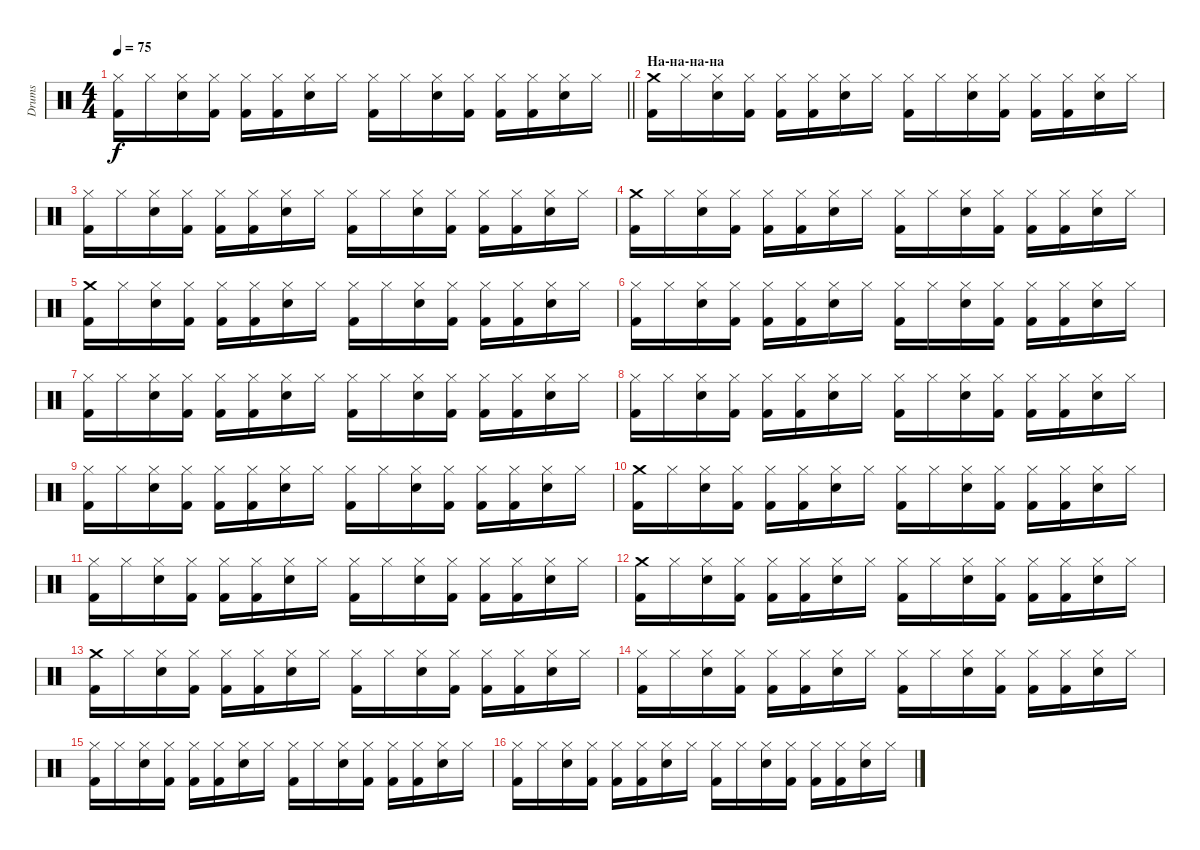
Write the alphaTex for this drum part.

\track ("Drums" "Drums") {instrument percussion}
\staff {score}
\articulation defaults
\ts (4 4)
\tempo 75
\clef neutral
\barLineRight lightlight
\ks c
("Hi-Hat (closed)" "Kick (hit) 2").16{dy f} "Hi-Hat (closed)".16 ("Hi-Hat (closed)" "Snare (hit) 2").16 ("Hi-Hat (closed)" "Kick (hit) 2").16 ("Hi-Hat (closed)" "Kick (hit) 2").16 ("Hi-Hat (closed)" "Kick (hit) 2").16 ("Hi-Hat (closed)" "Snare (hit) 2").16 "Hi-Hat (closed)".16 ("Hi-Hat (closed)" "Kick (hit) 2").16 "Hi-Hat (closed)".16 ("Hi-Hat (closed)" "Snare (hit) 2").16 ("Hi-Hat (closed)" "Kick (hit) 2").16 ("Hi-Hat (closed)" "Kick (hit) 2").16 ("Hi-Hat (closed)" "Kick (hit) 2").16 ("Hi-Hat (closed)" "Snare (hit) 2").16 "Hi-Hat (closed)".16 |
\section ("" "На-на-на-на")
("Crash medium (hit)" "Kick (hit) 2").16 "Hi-Hat (closed)".16 ("Hi-Hat (closed)" "Snare (hit) 2").16 ("Hi-Hat (closed)" "Kick (hit) 2").16 ("Hi-Hat (closed)" "Kick (hit) 2").16 ("Hi-Hat (closed)" "Kick (hit) 2").16 ("Hi-Hat (closed)" "Snare (hit) 2").16 "Hi-Hat (closed)".16 ("Hi-Hat (closed)" "Kick (hit) 2").16 "Hi-Hat (closed)".16 ("Hi-Hat (closed)" "Snare (hit) 2").16 ("Hi-Hat (closed)" "Kick (hit) 2").16 ("Hi-Hat (closed)" "Kick (hit) 2").16 ("Hi-Hat (closed)" "Kick (hit) 2").16 ("Hi-Hat (closed)" "Snare (hit) 2").16 "Hi-Hat (closed)".16 |
("Hi-Hat (closed)" "Kick (hit) 2").16 "Hi-Hat (closed)".16 ("Hi-Hat (closed)" "Snare (hit) 2").16 ("Hi-Hat (closed)" "Kick (hit) 2").16 ("Hi-Hat (closed)" "Kick (hit) 2").16 ("Hi-Hat (closed)" "Kick (hit) 2").16 ("Hi-Hat (closed)" "Snare (hit) 2").16 "Hi-Hat (closed)".16 ("Hi-Hat (closed)" "Kick (hit) 2").16 "Hi-Hat (closed)".16 ("Hi-Hat (closed)" "Snare (hit) 2").16 ("Hi-Hat (closed)" "Kick (hit) 2").16 ("Hi-Hat (closed)" "Kick (hit) 2").16 ("Hi-Hat (closed)" "Kick (hit) 2").16 ("Hi-Hat (closed)" "Snare (hit) 2").16 "Hi-Hat (closed)".16 |
("Crash medium (hit)" "Kick (hit) 2").16 "Hi-Hat (closed)".16 ("Hi-Hat (closed)" "Snare (hit) 2").16 ("Hi-Hat (closed)" "Kick (hit) 2").16 ("Hi-Hat (closed)" "Kick (hit) 2").16 ("Hi-Hat (closed)" "Kick (hit) 2").16 ("Hi-Hat (closed)" "Snare (hit) 2").16 "Hi-Hat (closed)".16 ("Hi-Hat (closed)" "Kick (hit) 2").16 "Hi-Hat (closed)".16 ("Hi-Hat (closed)" "Snare (hit) 2").16 ("Hi-Hat (closed)" "Kick (hit) 2").16 ("Hi-Hat (closed)" "Kick (hit) 2").16 ("Hi-Hat (closed)" "Kick (hit) 2").16 ("Hi-Hat (closed)" "Snare (hit) 2").16 "Hi-Hat (closed)".16 |
("Crash medium (hit)" "Kick (hit) 2").16 "Hi-Hat (closed)".16 ("Hi-Hat (closed)" "Snare (hit) 2").16 ("Hi-Hat (closed)" "Kick (hit) 2").16 ("Hi-Hat (closed)" "Kick (hit) 2").16 ("Hi-Hat (closed)" "Kick (hit) 2").16 ("Hi-Hat (closed)" "Snare (hit) 2").16 "Hi-Hat (closed)".16 ("Hi-Hat (closed)" "Kick (hit) 2").16 "Hi-Hat (closed)".16 ("Hi-Hat (closed)" "Snare (hit) 2").16 ("Hi-Hat (closed)" "Kick (hit) 2").16 ("Hi-Hat (closed)" "Kick (hit) 2").16 ("Hi-Hat (closed)" "Kick (hit) 2").16 ("Hi-Hat (closed)" "Snare (hit) 2").16 "Hi-Hat (closed)".16 |
("Hi-Hat (closed)" "Kick (hit) 2").16 "Hi-Hat (closed)".16 ("Hi-Hat (closed)" "Snare (hit) 2").16 ("Hi-Hat (closed)" "Kick (hit) 2").16 ("Hi-Hat (closed)" "Kick (hit) 2").16 ("Hi-Hat (closed)" "Kick (hit) 2").16 ("Hi-Hat (closed)" "Snare (hit) 2").16 "Hi-Hat (closed)".16 ("Hi-Hat (closed)" "Kick (hit) 2").16 "Hi-Hat (closed)".16 ("Hi-Hat (closed)" "Snare (hit) 2").16 ("Hi-Hat (closed)" "Kick (hit) 2").16 ("Hi-Hat (closed)" "Kick (hit) 2").16 ("Hi-Hat (closed)" "Kick (hit) 2").16 ("Hi-Hat (closed)" "Snare (hit) 2").16 "Hi-Hat (closed)".16 |
("Hi-Hat (closed)" "Kick (hit) 2").16 "Hi-Hat (closed)".16 ("Hi-Hat (closed)" "Snare (hit) 2").16 ("Hi-Hat (closed)" "Kick (hit) 2").16 ("Hi-Hat (closed)" "Kick (hit) 2").16 ("Hi-Hat (closed)" "Kick (hit) 2").16 ("Hi-Hat (closed)" "Snare (hit) 2").16 "Hi-Hat (closed)".16 ("Hi-Hat (closed)" "Kick (hit) 2").16 "Hi-Hat (closed)".16 ("Hi-Hat (closed)" "Snare (hit) 2").16 ("Hi-Hat (closed)" "Kick (hit) 2").16 ("Hi-Hat (closed)" "Kick (hit) 2").16 ("Hi-Hat (closed)" "Kick (hit) 2").16 ("Hi-Hat (closed)" "Snare (hit) 2").16 "Hi-Hat (closed)".16 |
("Hi-Hat (closed)" "Kick (hit) 2").16 "Hi-Hat (closed)".16 ("Hi-Hat (closed)" "Snare (hit) 2").16 ("Hi-Hat (closed)" "Kick (hit) 2").16 ("Hi-Hat (closed)" "Kick (hit) 2").16 ("Hi-Hat (closed)" "Kick (hit) 2").16 ("Hi-Hat (closed)" "Snare (hit) 2").16 "Hi-Hat (closed)".16 ("Hi-Hat (closed)" "Kick (hit) 2").16 "Hi-Hat (closed)".16 ("Hi-Hat (closed)" "Snare (hit) 2").16 ("Hi-Hat (closed)" "Kick (hit) 2").16 ("Hi-Hat (closed)" "Kick (hit) 2").16 ("Hi-Hat (closed)" "Kick (hit) 2").16 ("Hi-Hat (closed)" "Snare (hit) 2").16 "Hi-Hat (closed)".16 |
("Hi-Hat (closed)" "Kick (hit) 2").16 "Hi-Hat (closed)".16 ("Hi-Hat (closed)" "Snare (hit) 2").16 ("Hi-Hat (closed)" "Kick (hit) 2").16 ("Hi-Hat (closed)" "Kick (hit) 2").16 ("Hi-Hat (closed)" "Kick (hit) 2").16 ("Hi-Hat (closed)" "Snare (hit) 2").16 "Hi-Hat (closed)".16 ("Hi-Hat (closed)" "Kick (hit) 2").16 "Hi-Hat (closed)".16 ("Hi-Hat (closed)" "Snare (hit) 2").16 ("Hi-Hat (closed)" "Kick (hit) 2").16 ("Hi-Hat (closed)" "Kick (hit) 2").16 ("Hi-Hat (closed)" "Kick (hit) 2").16 ("Hi-Hat (closed)" "Snare (hit) 2").16 "Hi-Hat (closed)".16 |
("Crash medium (hit)" "Kick (hit) 2").16 "Hi-Hat (closed)".16 ("Hi-Hat (closed)" "Snare (hit) 2").16 ("Hi-Hat (closed)" "Kick (hit) 2").16 ("Hi-Hat (closed)" "Kick (hit) 2").16 ("Hi-Hat (closed)" "Kick (hit) 2").16 ("Hi-Hat (closed)" "Snare (hit) 2").16 "Hi-Hat (closed)".16 ("Hi-Hat (closed)" "Kick (hit) 2").16 "Hi-Hat (closed)".16 ("Hi-Hat (closed)" "Snare (hit) 2").16 ("Hi-Hat (closed)" "Kick (hit) 2").16 ("Hi-Hat (closed)" "Kick (hit) 2").16 ("Hi-Hat (closed)" "Kick (hit) 2").16 ("Hi-Hat (closed)" "Snare (hit) 2").16 "Hi-Hat (closed)".16 |
("Hi-Hat (closed)" "Kick (hit) 2").16 "Hi-Hat (closed)".16 ("Hi-Hat (closed)" "Snare (hit) 2").16 ("Hi-Hat (closed)" "Kick (hit) 2").16 ("Hi-Hat (closed)" "Kick (hit) 2").16 ("Hi-Hat (closed)" "Kick (hit) 2").16 ("Hi-Hat (closed)" "Snare (hit) 2").16 "Hi-Hat (closed)".16 ("Hi-Hat (closed)" "Kick (hit) 2").16 "Hi-Hat (closed)".16 ("Hi-Hat (closed)" "Snare (hit) 2").16 ("Hi-Hat (closed)" "Kick (hit) 2").16 ("Hi-Hat (closed)" "Kick (hit) 2").16 ("Hi-Hat (closed)" "Kick (hit) 2").16 ("Hi-Hat (closed)" "Snare (hit) 2").16 "Hi-Hat (closed)".16 |
("Crash medium (hit)" "Kick (hit) 2").16 "Hi-Hat (closed)".16 ("Hi-Hat (closed)" "Snare (hit) 2").16 ("Hi-Hat (closed)" "Kick (hit) 2").16 ("Hi-Hat (closed)" "Kick (hit) 2").16 ("Hi-Hat (closed)" "Kick (hit) 2").16 ("Hi-Hat (closed)" "Snare (hit) 2").16 "Hi-Hat (closed)".16 ("Hi-Hat (closed)" "Kick (hit) 2").16 "Hi-Hat (closed)".16 ("Hi-Hat (closed)" "Snare (hit) 2").16 ("Hi-Hat (closed)" "Kick (hit) 2").16 ("Hi-Hat (closed)" "Kick (hit) 2").16 ("Hi-Hat (closed)" "Kick (hit) 2").16 ("Hi-Hat (closed)" "Snare (hit) 2").16 "Hi-Hat (closed)".16 |
("Crash medium (hit)" "Kick (hit) 2").16 "Hi-Hat (closed)".16 ("Hi-Hat (closed)" "Snare (hit) 2").16 ("Hi-Hat (closed)" "Kick (hit) 2").16 ("Hi-Hat (closed)" "Kick (hit) 2").16 ("Hi-Hat (closed)" "Kick (hit) 2").16 ("Hi-Hat (closed)" "Snare (hit) 2").16 "Hi-Hat (closed)".16 ("Hi-Hat (closed)" "Kick (hit) 2").16 "Hi-Hat (closed)".16 ("Hi-Hat (closed)" "Snare (hit) 2").16 ("Hi-Hat (closed)" "Kick (hit) 2").16 ("Hi-Hat (closed)" "Kick (hit) 2").16 ("Hi-Hat (closed)" "Kick (hit) 2").16 ("Hi-Hat (closed)" "Snare (hit) 2").16 "Hi-Hat (closed)".16 |
("Hi-Hat (closed)" "Kick (hit) 2").16 "Hi-Hat (closed)".16 ("Hi-Hat (closed)" "Snare (hit) 2").16 ("Hi-Hat (closed)" "Kick (hit) 2").16 ("Hi-Hat (closed)" "Kick (hit) 2").16 ("Hi-Hat (closed)" "Kick (hit) 2").16 ("Hi-Hat (closed)" "Snare (hit) 2").16 "Hi-Hat (closed)".16 ("Hi-Hat (closed)" "Kick (hit) 2").16 "Hi-Hat (closed)".16 ("Hi-Hat (closed)" "Snare (hit) 2").16 ("Hi-Hat (closed)" "Kick (hit) 2").16 ("Hi-Hat (closed)" "Kick (hit) 2").16 ("Hi-Hat (closed)" "Kick (hit) 2").16 ("Hi-Hat (closed)" "Snare (hit) 2").16 "Hi-Hat (closed)".16 |
("Hi-Hat (closed)" "Kick (hit) 2").16 "Hi-Hat (closed)".16 ("Hi-Hat (closed)" "Snare (hit) 2").16 ("Hi-Hat (closed)" "Kick (hit) 2").16 ("Hi-Hat (closed)" "Kick (hit) 2").16 ("Hi-Hat (closed)" "Kick (hit) 2").16 ("Hi-Hat (closed)" "Snare (hit) 2").16 "Hi-Hat (closed)".16 ("Hi-Hat (closed)" "Kick (hit) 2").16 "Hi-Hat (closed)".16 ("Hi-Hat (closed)" "Snare (hit) 2").16 ("Hi-Hat (closed)" "Kick (hit) 2").16 ("Hi-Hat (closed)" "Kick (hit) 2").16 ("Hi-Hat (closed)" "Kick (hit) 2").16 ("Hi-Hat (closed)" "Snare (hit) 2").16 "Hi-Hat (closed)".16 |
("Hi-Hat (closed)" "Kick (hit) 2").16 "Hi-Hat (closed)".16 ("Hi-Hat (closed)" "Snare (hit) 2").16 ("Hi-Hat (closed)" "Kick (hit) 2").16 ("Hi-Hat (closed)" "Kick (hit) 2").16 ("Hi-Hat (closed)" "Kick (hit) 2").16 ("Hi-Hat (closed)" "Snare (hit) 2").16 "Hi-Hat (closed)".16 ("Hi-Hat (closed)" "Kick (hit) 2").16 "Hi-Hat (closed)".16 ("Hi-Hat (closed)" "Snare (hit) 2").16 ("Hi-Hat (closed)" "Kick (hit) 2").16 ("Hi-Hat (closed)" "Kick (hit) 2").16 ("Hi-Hat (closed)" "Kick (hit) 2").16 ("Hi-Hat (closed)" "Snare (hit) 2").16 "Hi-Hat (closed)".16
